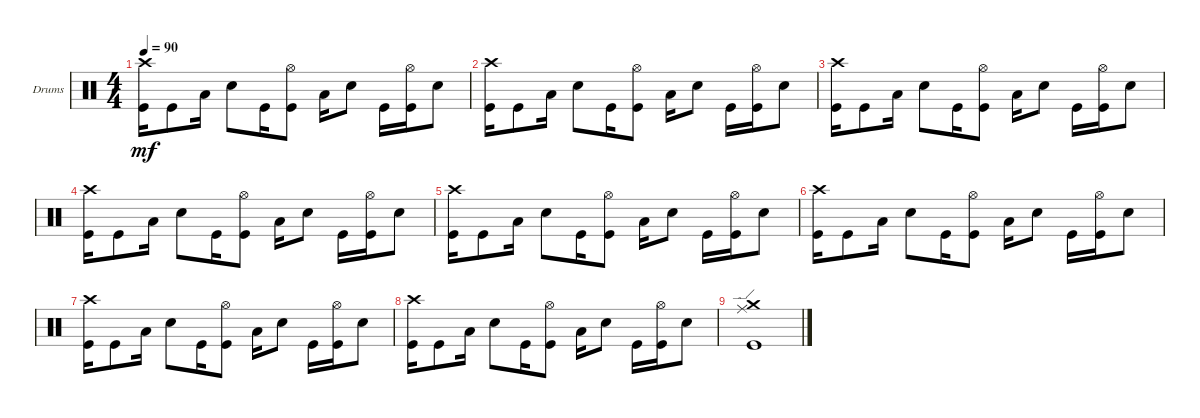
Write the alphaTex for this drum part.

\bracketExtendMode groupsimilarinstruments
\firstSystemTrackNameOrientation horizontal
\otherSystemsTrackNameOrientation horizontal
\track ("Drumkit" "Drums") {instrument percussion}
\staff {score}
\articulation defaults
\ts (4 4)
\tempo 90
\clef neutral
\scale
0.333333
\ks c
("Kick (hit)" "Crash high (hit)").16{dy mf} "Kick (hit)".8 "Low Tom (hit)".16 "Snare (hit) 2".8 "Kick (hit)".16 ("Kick (hit)" "Hi-Hat (open)").8 "Low Tom (hit)".16 "Snare (hit) 2".8 "Kick (hit)".16 ("Kick (hit)" "Hi-Hat (open)").16 "Snare (hit) 2".8 |
\scale
0.333333 ("Kick (hit)" "Crash high (hit)").16 "Kick (hit)".8 "Low Tom (hit)".16 "Snare (hit) 2".8 "Kick (hit)".16 ("Kick (hit)" "Hi-Hat (open)").8 "Low Tom (hit)".16 "Snare (hit) 2".8 "Kick (hit)".16 ("Kick (hit)" "Hi-Hat (open)").16 "Snare (hit) 2".8 |
\scale
0.333333 ("Kick (hit)" "Crash high (hit)").16 "Kick (hit)".8 "Low Tom (hit)".16 "Snare (hit) 2".8 "Kick (hit)".16 ("Kick (hit)" "Hi-Hat (open)").8 "Low Tom (hit)".16 "Snare (hit) 2".8 "Kick (hit)".16 ("Kick (hit)" "Hi-Hat (open)").16 "Snare (hit) 2".8 |
\scale
0.333333 ("Kick (hit)" "Crash high (hit)").16 "Kick (hit)".8 "Low Tom (hit)".16 "Snare (hit) 2".8 "Kick (hit)".16 ("Kick (hit)" "Hi-Hat (open)").8 "Low Tom (hit)".16 "Snare (hit) 2".8 "Kick (hit)".16 ("Kick (hit)" "Hi-Hat (open)").16 "Snare (hit) 2".8 |
\scale
0.333333 ("Kick (hit)" "Crash high (hit)").16 "Kick (hit)".8 "Low Tom (hit)".16 "Snare (hit) 2".8 "Kick (hit)".16 ("Kick (hit)" "Hi-Hat (open)").8 "Low Tom (hit)".16 "Snare (hit) 2".8 "Kick (hit)".16 ("Kick (hit)" "Hi-Hat (open)").16 "Snare (hit) 2".8 |
\scale
0.333333 ("Kick (hit)" "Crash high (hit)").16 "Kick (hit)".8 "Low Tom (hit)".16 "Snare (hit) 2".8 "Kick (hit)".16 ("Kick (hit)" "Hi-Hat (open)").8 "Low Tom (hit)".16 "Snare (hit) 2".8 "Kick (hit)".16 ("Kick (hit)" "Hi-Hat (open)").16 "Snare (hit) 2".8 |
\scale
0.333333 ("Kick (hit)" "Crash high (hit)").16 "Kick (hit)".8 "Low Tom (hit)".16 "Snare (hit) 2".8 "Kick (hit)".16 ("Kick (hit)" "Hi-Hat (open)").8 "Low Tom (hit)".16 "Snare (hit) 2".8 "Kick (hit)".16 ("Kick (hit)" "Hi-Hat (open)").16 "Snare (hit) 2".8 |
\scale
0.333333 ("Kick (hit)" "Crash high (hit)").16 "Kick (hit)".8 "Low Tom (hit)".16 "Snare (hit) 2".8 "Kick (hit)".16 ("Kick (hit)" "Hi-Hat (open)").8 "Low Tom (hit)".16 "Snare (hit) 2".8 "Kick (hit)".16 ("Kick (hit)" "Hi-Hat (open)").16 "Snare (hit) 2".8 |
\scale
0.333333 ("Kick (hit)" "Crash medium (hit)" "Ride (edge)").1 |
\scale
0.333333 |
\scale
0.333333 |
\scale
0.333333 |
\scale
0.333333 |
\scale
0.333333 |
\scale
0.333333 |
\scale
0.333333
